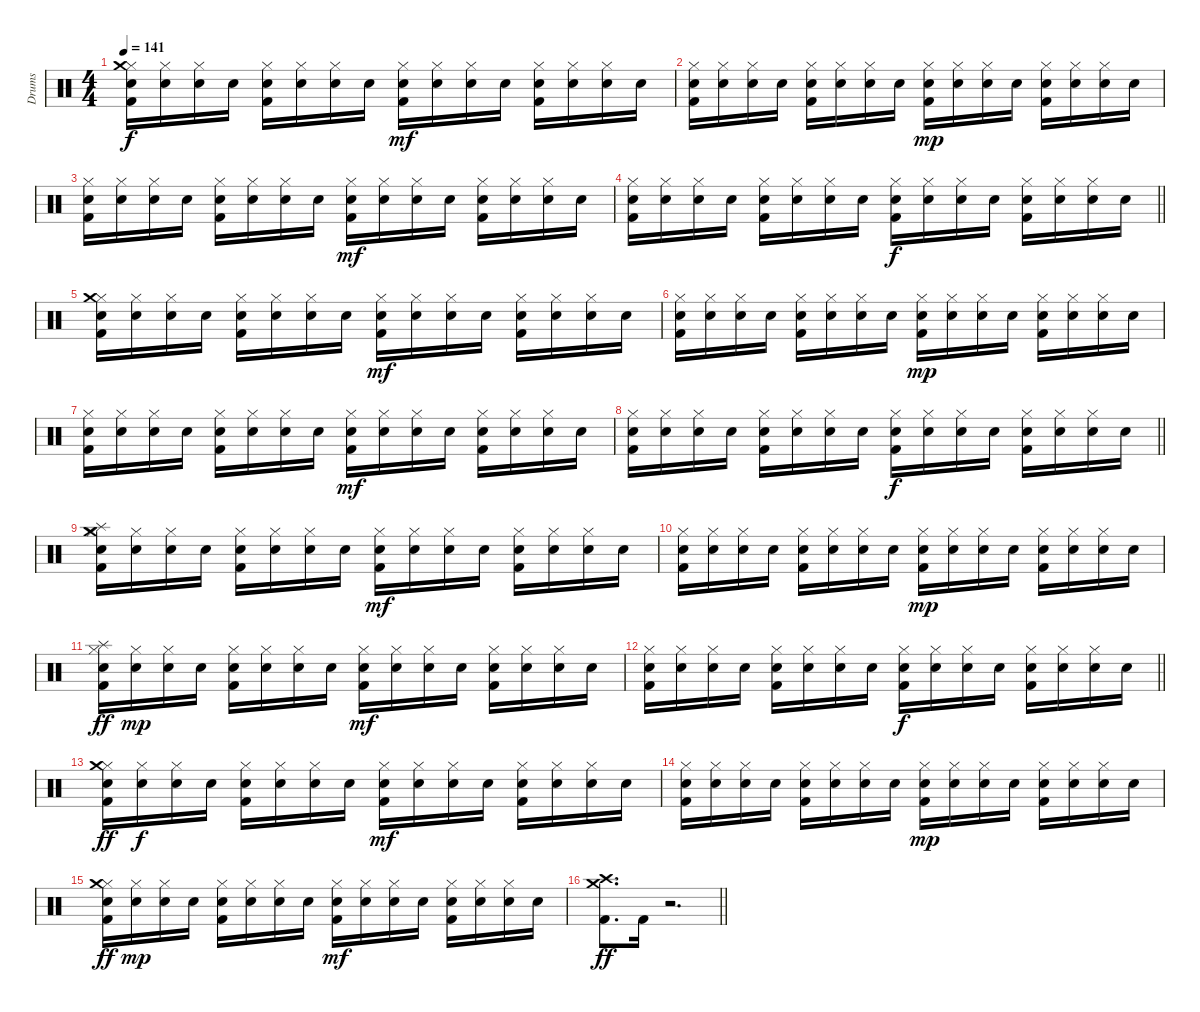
\track ("Drums" "Drums") {instrument percussion}
\staff {score}
\articulation defaults
\ts (4 4)
\tempo 141
\clef neutral
\ks c
("Hi-Hat (closed)" "Snare (hit) 2" "Crash medium (hit)" "Kick (hit) 2").16{dy f} ("Hi-Hat (closed)" "Snare (hit) 2").16 ("Hi-Hat (closed)" "Snare (hit) 2").16 "Snare (hit) 2".16 ("Hi-Hat (closed)" "Snare (hit) 2" "Kick (hit) 2").16 ("Hi-Hat (closed)" "Snare (hit) 2").16 ("Hi-Hat (closed)" "Snare (hit) 2").16 "Snare (hit) 2".16 ("Hi-Hat (closed)" "Snare (hit) 2" "Kick (hit) 2").16{dy mf} ("Hi-Hat (closed)" "Snare (hit) 2").16 ("Hi-Hat (closed)" "Snare (hit) 2").16 "Snare (hit) 2".16 ("Hi-Hat (closed)" "Snare (hit) 2" "Kick (hit) 2").16 ("Hi-Hat (closed)" "Snare (hit) 2").16 ("Hi-Hat (closed)" "Snare (hit) 2").16 "Snare (hit) 2".16 |
("Hi-Hat (closed)" "Snare (hit) 2" "Kick (hit) 2").16 ("Hi-Hat (closed)" "Snare (hit) 2").16 ("Hi-Hat (closed)" "Snare (hit) 2").16 "Snare (hit) 2".16 ("Hi-Hat (closed)" "Snare (hit) 2" "Kick (hit) 2").16 ("Hi-Hat (closed)" "Snare (hit) 2").16 ("Hi-Hat (closed)" "Snare (hit) 2").16 "Snare (hit) 2".16 ("Hi-Hat (closed)" "Snare (hit) 2" "Kick (hit) 2").16{dy mp} ("Hi-Hat (closed)" "Snare (hit) 2").16 ("Hi-Hat (closed)" "Snare (hit) 2").16 "Snare (hit) 2".16 ("Hi-Hat (closed)" "Snare (hit) 2" "Kick (hit) 2").16 ("Hi-Hat (closed)" "Snare (hit) 2").16 ("Hi-Hat (closed)" "Snare (hit) 2").16 "Snare (hit) 2".16 |
("Hi-Hat (closed)" "Snare (hit) 2" "Kick (hit) 2").16 ("Hi-Hat (closed)" "Snare (hit) 2").16 ("Hi-Hat (closed)" "Snare (hit) 2").16 "Snare (hit) 2".16 ("Hi-Hat (closed)" "Snare (hit) 2" "Kick (hit) 2").16 ("Hi-Hat (closed)" "Snare (hit) 2").16 ("Hi-Hat (closed)" "Snare (hit) 2").16 "Snare (hit) 2".16 ("Hi-Hat (closed)" "Snare (hit) 2" "Kick (hit) 2").16{dy mf} ("Hi-Hat (closed)" "Snare (hit) 2").16 ("Hi-Hat (closed)" "Snare (hit) 2").16 "Snare (hit) 2".16 ("Hi-Hat (closed)" "Snare (hit) 2" "Kick (hit) 2").16 ("Hi-Hat (closed)" "Snare (hit) 2").16 ("Hi-Hat (closed)" "Snare (hit) 2").16 "Snare (hit) 2".16 |
\barLineRight lightlight
("Hi-Hat (closed)" "Snare (hit) 2" "Kick (hit) 2").16 ("Hi-Hat (closed)" "Snare (hit) 2").16 ("Hi-Hat (closed)" "Snare (hit) 2").16 "Snare (hit) 2".16 ("Hi-Hat (closed)" "Snare (hit) 2" "Kick (hit) 2").16 ("Hi-Hat (closed)" "Snare (hit) 2").16 ("Hi-Hat (closed)" "Snare (hit) 2").16 "Snare (hit) 2".16 ("Hi-Hat (closed)" "Snare (hit) 2" "Kick (hit) 2").16{dy f} ("Hi-Hat (closed)" "Snare (hit) 2").16 ("Hi-Hat (closed)" "Snare (hit) 2").16 "Snare (hit) 2".16 ("Hi-Hat (closed)" "Snare (hit) 2" "Kick (hit) 2").16 ("Hi-Hat (closed)" "Snare (hit) 2").16 ("Hi-Hat (closed)" "Snare (hit) 2").16 "Snare (hit) 2".16 |
("Hi-Hat (closed)" "Snare (hit) 2" "Crash medium (hit)" "Kick (hit) 2").16 ("Hi-Hat (closed)" "Snare (hit) 2").16 ("Hi-Hat (closed)" "Snare (hit) 2").16 "Snare (hit) 2".16 ("Hi-Hat (closed)" "Snare (hit) 2" "Kick (hit) 2").16 ("Hi-Hat (closed)" "Snare (hit) 2").16 ("Hi-Hat (closed)" "Snare (hit) 2").16 "Snare (hit) 2".16 ("Hi-Hat (closed)" "Snare (hit) 2" "Kick (hit) 2").16{dy mf} ("Hi-Hat (closed)" "Snare (hit) 2").16 ("Hi-Hat (closed)" "Snare (hit) 2").16 "Snare (hit) 2".16 ("Hi-Hat (closed)" "Snare (hit) 2" "Kick (hit) 2").16 ("Hi-Hat (closed)" "Snare (hit) 2").16 ("Hi-Hat (closed)" "Snare (hit) 2").16 "Snare (hit) 2".16 |
("Hi-Hat (closed)" "Snare (hit) 2" "Kick (hit) 2").16 ("Hi-Hat (closed)" "Snare (hit) 2").16 ("Hi-Hat (closed)" "Snare (hit) 2").16 "Snare (hit) 2".16 ("Hi-Hat (closed)" "Snare (hit) 2" "Kick (hit) 2").16 ("Hi-Hat (closed)" "Snare (hit) 2").16 ("Hi-Hat (closed)" "Snare (hit) 2").16 "Snare (hit) 2".16 ("Hi-Hat (closed)" "Snare (hit) 2" "Kick (hit) 2").16{dy mp} ("Hi-Hat (closed)" "Snare (hit) 2").16 ("Hi-Hat (closed)" "Snare (hit) 2").16 "Snare (hit) 2".16 ("Hi-Hat (closed)" "Snare (hit) 2" "Kick (hit) 2").16 ("Hi-Hat (closed)" "Snare (hit) 2").16 ("Hi-Hat (closed)" "Snare (hit) 2").16 "Snare (hit) 2".16 |
("Hi-Hat (closed)" "Snare (hit) 2" "Kick (hit) 2").16 ("Hi-Hat (closed)" "Snare (hit) 2").16 ("Hi-Hat (closed)" "Snare (hit) 2").16 "Snare (hit) 2".16 ("Hi-Hat (closed)" "Snare (hit) 2" "Kick (hit) 2").16 ("Hi-Hat (closed)" "Snare (hit) 2").16 ("Hi-Hat (closed)" "Snare (hit) 2").16 "Snare (hit) 2".16 ("Hi-Hat (closed)" "Snare (hit) 2" "Kick (hit) 2").16{dy mf} ("Hi-Hat (closed)" "Snare (hit) 2").16 ("Hi-Hat (closed)" "Snare (hit) 2").16 "Snare (hit) 2".16 ("Hi-Hat (closed)" "Snare (hit) 2" "Kick (hit) 2").16 ("Hi-Hat (closed)" "Snare (hit) 2").16 ("Hi-Hat (closed)" "Snare (hit) 2").16 "Snare (hit) 2".16 |
\barLineRight lightlight
("Hi-Hat (closed)" "Snare (hit) 2" "Kick (hit) 2").16 ("Hi-Hat (closed)" "Snare (hit) 2").16 ("Hi-Hat (closed)" "Snare (hit) 2").16 "Snare (hit) 2".16 ("Hi-Hat (closed)" "Snare (hit) 2" "Kick (hit) 2").16 ("Hi-Hat (closed)" "Snare (hit) 2").16 ("Hi-Hat (closed)" "Snare (hit) 2").16 "Snare (hit) 2".16 ("Hi-Hat (closed)" "Snare (hit) 2" "Kick (hit) 2").16{dy f} ("Hi-Hat (closed)" "Snare (hit) 2").16 ("Hi-Hat (closed)" "Snare (hit) 2").16 "Snare (hit) 2".16 ("Hi-Hat (closed)" "Snare (hit) 2" "Kick (hit) 2").16 ("Hi-Hat (closed)" "Snare (hit) 2").16 ("Hi-Hat (closed)" "Snare (hit) 2").16 "Snare (hit) 2".16 |
("Hi-Hat (closed)" "Snare (hit) 2" "Crash medium (hit)" "Splash (hit)" "Kick (hit) 2").16 ("Hi-Hat (closed)" "Snare (hit) 2").16 ("Hi-Hat (closed)" "Snare (hit) 2").16 "Snare (hit) 2".16 ("Hi-Hat (closed)" "Snare (hit) 2" "Kick (hit) 2").16 ("Hi-Hat (closed)" "Snare (hit) 2").16 ("Hi-Hat (closed)" "Snare (hit) 2").16 "Snare (hit) 2".16 ("Hi-Hat (closed)" "Snare (hit) 2" "Kick (hit) 2").16{dy mf} ("Hi-Hat (closed)" "Snare (hit) 2").16 ("Hi-Hat (closed)" "Snare (hit) 2").16 "Snare (hit) 2".16 ("Hi-Hat (closed)" "Snare (hit) 2" "Kick (hit) 2").16 ("Hi-Hat (closed)" "Snare (hit) 2").16 ("Hi-Hat (closed)" "Snare (hit) 2").16 "Snare (hit) 2".16 |
("Hi-Hat (closed)" "Snare (hit) 2" "Kick (hit) 2").16 ("Hi-Hat (closed)" "Snare (hit) 2").16 ("Hi-Hat (closed)" "Snare (hit) 2").16 "Snare (hit) 2".16 ("Hi-Hat (closed)" "Snare (hit) 2" "Kick (hit) 2").16 ("Hi-Hat (closed)" "Snare (hit) 2").16 ("Hi-Hat (closed)" "Snare (hit) 2").16 "Snare (hit) 2".16 ("Hi-Hat (closed)" "Snare (hit) 2" "Kick (hit) 2").16{dy mp} ("Hi-Hat (closed)" "Snare (hit) 2").16 ("Hi-Hat (closed)" "Snare (hit) 2").16 "Snare (hit) 2".16 ("Hi-Hat (closed)" "Snare (hit) 2" "Kick (hit) 2").16 ("Hi-Hat (closed)" "Snare (hit) 2").16 ("Hi-Hat (closed)" "Snare (hit) 2").16 "Snare (hit) 2".16 |
("Hi-Hat (closed)" "Snare (hit) 2" "Splash (hit)" "Kick (hit) 2").16{dy ff} ("Hi-Hat (closed)" "Snare (hit) 2").16{dy mp} ("Hi-Hat (closed)" "Snare (hit) 2").16 "Snare (hit) 2".16 ("Hi-Hat (closed)" "Snare (hit) 2" "Kick (hit) 2").16 ("Hi-Hat (closed)" "Snare (hit) 2").16 ("Hi-Hat (closed)" "Snare (hit) 2").16 "Snare (hit) 2".16 ("Hi-Hat (closed)" "Snare (hit) 2" "Kick (hit) 2").16{dy mf} ("Hi-Hat (closed)" "Snare (hit) 2").16 ("Hi-Hat (closed)" "Snare (hit) 2").16 "Snare (hit) 2".16 ("Hi-Hat (closed)" "Snare (hit) 2" "Kick (hit) 2").16 ("Hi-Hat (closed)" "Snare (hit) 2").16 ("Hi-Hat (closed)" "Snare (hit) 2").16 "Snare (hit) 2".16 |
\barLineRight lightlight
("Hi-Hat (closed)" "Snare (hit) 2" "Kick (hit) 2").16 ("Hi-Hat (closed)" "Snare (hit) 2").16 ("Hi-Hat (closed)" "Snare (hit) 2").16 "Snare (hit) 2".16 ("Hi-Hat (closed)" "Snare (hit) 2" "Kick (hit) 2").16 ("Hi-Hat (closed)" "Snare (hit) 2").16 ("Hi-Hat (closed)" "Snare (hit) 2").16 "Snare (hit) 2".16 ("Hi-Hat (closed)" "Snare (hit) 2" "Kick (hit) 2").16{dy f} ("Hi-Hat (closed)" "Snare (hit) 2").16 ("Hi-Hat (closed)" "Snare (hit) 2").16 "Snare (hit) 2".16 ("Hi-Hat (closed)" "Snare (hit) 2" "Kick (hit) 2").16 ("Hi-Hat (closed)" "Snare (hit) 2").16 ("Hi-Hat (closed)" "Snare (hit) 2").16 "Snare (hit) 2".16 |
("Hi-Hat (closed)" "Snare (hit) 2" "Crash medium (hit)" "Kick (hit) 2").16{dy ff} ("Hi-Hat (closed)" "Snare (hit) 2").16{dy f} ("Hi-Hat (closed)" "Snare (hit) 2").16 "Snare (hit) 2".16 ("Hi-Hat (closed)" "Snare (hit) 2" "Kick (hit) 2").16 ("Hi-Hat (closed)" "Snare (hit) 2").16 ("Hi-Hat (closed)" "Snare (hit) 2").16 "Snare (hit) 2".16 ("Hi-Hat (closed)" "Snare (hit) 2" "Kick (hit) 2").16{dy mf} ("Hi-Hat (closed)" "Snare (hit) 2").16 ("Hi-Hat (closed)" "Snare (hit) 2").16 "Snare (hit) 2".16 ("Hi-Hat (closed)" "Snare (hit) 2" "Kick (hit) 2").16 ("Hi-Hat (closed)" "Snare (hit) 2").16 ("Hi-Hat (closed)" "Snare (hit) 2").16 "Snare (hit) 2".16 |
("Hi-Hat (closed)" "Snare (hit) 2" "Kick (hit) 2").16 ("Hi-Hat (closed)" "Snare (hit) 2").16 ("Hi-Hat (closed)" "Snare (hit) 2").16 "Snare (hit) 2".16 ("Hi-Hat (closed)" "Snare (hit) 2" "Kick (hit) 2").16 ("Hi-Hat (closed)" "Snare (hit) 2").16 ("Hi-Hat (closed)" "Snare (hit) 2").16 "Snare (hit) 2".16 ("Hi-Hat (closed)" "Snare (hit) 2" "Kick (hit) 2").16{dy mp} ("Hi-Hat (closed)" "Snare (hit) 2").16 ("Hi-Hat (closed)" "Snare (hit) 2").16 "Snare (hit) 2".16 ("Hi-Hat (closed)" "Snare (hit) 2" "Kick (hit) 2").16 ("Hi-Hat (closed)" "Snare (hit) 2").16 ("Hi-Hat (closed)" "Snare (hit) 2").16 "Snare (hit) 2".16 |
("Hi-Hat (closed)" "Snare (hit) 2" "Crash medium (hit)" "Kick (hit) 2").16{dy ff} ("Hi-Hat (closed)" "Snare (hit) 2").16{dy mp} ("Hi-Hat (closed)" "Snare (hit) 2").16 "Snare (hit) 2".16 ("Hi-Hat (closed)" "Snare (hit) 2" "Kick (hit) 2").16 ("Hi-Hat (closed)" "Snare (hit) 2").16 ("Hi-Hat (closed)" "Snare (hit) 2").16 "Snare (hit) 2".16 ("Hi-Hat (closed)" "Snare (hit) 2" "Kick (hit) 2").16{dy mf} ("Hi-Hat (closed)" "Snare (hit) 2").16 ("Hi-Hat (closed)" "Snare (hit) 2").16 "Snare (hit) 2".16 ("Hi-Hat (closed)" "Snare (hit) 2" "Kick (hit) 2").16 ("Hi-Hat (closed)" "Snare (hit) 2").16 ("Hi-Hat (closed)" "Snare (hit) 2").16 "Snare (hit) 2".16 |
\barLineRight lightlight
("Crash high (hit)" "Crash medium (hit)" "Kick (hit) 2").8{d dy ff} "Kick (hit) 2".16 r.2{d}
